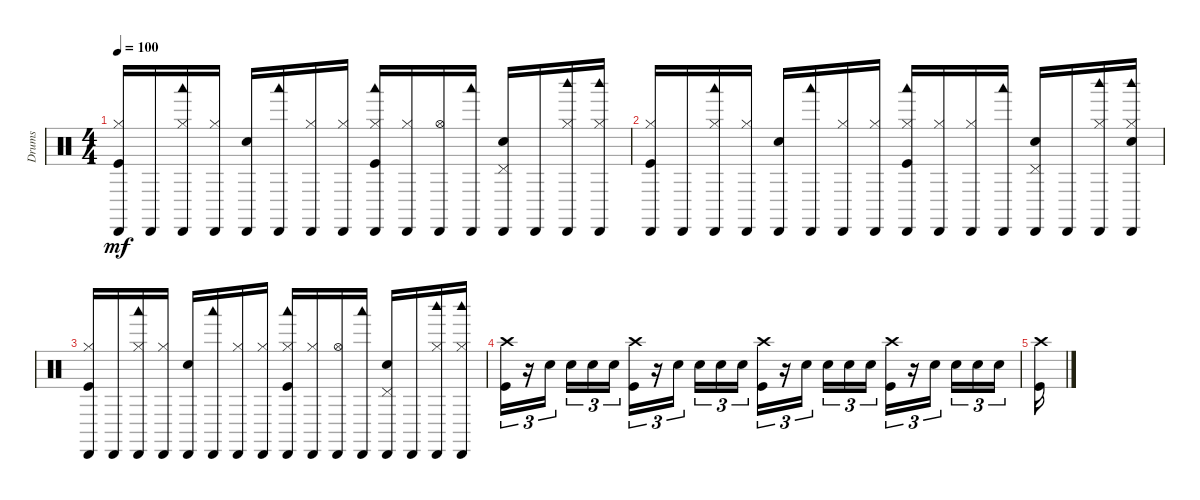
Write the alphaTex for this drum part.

\track ("Drums" "Drums") {instrument percussion}
\staff {score}
\articulation defaults
\ts (4 4)
\tempo 100
\clef neutral
\ks c
("Kick (hit)" "Hi-Hat (closed)" "Cabasa (hit)").16{dy mf} "Cabasa (hit)".16 ("Hi-Hat (closed)" "Woodblock low (hit)" "Cabasa (hit)").16 ("Hi-Hat (closed)" "Cabasa (hit)").16 ("Snare (hit) 2" "Cabasa (hit)").16 ("Woodblock low (hit)" "Cabasa (hit)").16 ("Hi-Hat (closed)" "Cabasa (hit)").16 ("Hi-Hat (closed)" "Cabasa (hit)").16 ("Kick (hit)" "Hi-Hat (closed)" "Woodblock low (hit)" "Cabasa (hit)").16 ("Hi-Hat (closed)" "Cabasa (hit)").16 ("Hi-Hat (open)" "Cabasa (hit)").16 ("Woodblock low (hit)" "Cabasa (hit)").16 ("Snare (hit) 2" "Pedal Hi-Hat (hit)" "Cabasa (hit)").16 "Cabasa (hit)".16 ("Hi-Hat (closed)" "Woodblock high (hit)" "Cabasa (hit)").16 ("Hi-Hat (closed)" "Woodblock high (hit)" "Cabasa (hit)").16 |
("Kick (hit)" "Hi-Hat (closed)" "Cabasa (hit)").16 "Cabasa (hit)".16 ("Hi-Hat (closed)" "Woodblock low (hit)" "Cabasa (hit)").16 ("Hi-Hat (closed)" "Cabasa (hit)").16 ("Snare (hit) 2" "Cabasa (hit)").16 ("Woodblock low (hit)" "Cabasa (hit)").16 ("Hi-Hat (closed)" "Cabasa (hit)").16 ("Hi-Hat (closed)" "Cabasa (hit)").16 ("Kick (hit)" "Hi-Hat (closed)" "Woodblock low (hit)" "Cabasa (hit)").16 ("Hi-Hat (closed)" "Cabasa (hit)").16 ("Hi-Hat (closed)" "Cabasa (hit)").16 ("Woodblock low (hit)" "Cabasa (hit)").16 ("Snare (hit) 2" "Pedal Hi-Hat (hit)" "Cabasa (hit)").16 "Cabasa (hit)".16 ("Hi-Hat (closed)" "Woodblock high (hit)" "Cabasa (hit)").16 ("Snare (hit) 2" "Hi-Hat (closed)" "Woodblock high (hit)" "Cabasa (hit)").16 |
("Kick (hit)" "Hi-Hat (closed)" "Cabasa (hit)").16 "Cabasa (hit)".16 ("Hi-Hat (closed)" "Woodblock low (hit)" "Cabasa (hit)").16 ("Hi-Hat (closed)" "Cabasa (hit)").16 ("Snare (hit) 2" "Cabasa (hit)").16 ("Woodblock low (hit)" "Cabasa (hit)").16 ("Hi-Hat (closed)" "Cabasa (hit)").16 ("Hi-Hat (closed)" "Cabasa (hit)").16 ("Kick (hit)" "Hi-Hat (closed)" "Woodblock low (hit)" "Cabasa (hit)").16 ("Hi-Hat (closed)" "Cabasa (hit)").16 ("Hi-Hat (open)" "Cabasa (hit)").16 ("Woodblock low (hit)" "Cabasa (hit)").16 ("Snare (hit) 2" "Pedal Hi-Hat (hit)" "Cabasa (hit)").16 "Cabasa (hit)".16 ("Hi-Hat (closed)" "Woodblock high (hit)" "Cabasa (hit)").16 ("Hi-Hat (closed)" "Woodblock high (hit)" "Cabasa (hit)").16 |
("Kick (hit)" "Crash high (hit)").16{tu (3 2)} r.16{tu (3 2)} "Snare (hit) 2".16{tu (3 2) beam splitsecondary} "Snare (hit) 2".16{tu (3 2)} "Snare (hit) 2".16{tu (3 2)} "Snare (hit) 2".16{tu (3 2)} ("Kick (hit)" "Crash high (hit)").16{tu (3 2)} r.16{tu (3 2)} "Snare (hit) 2".16{tu (3 2) beam splitsecondary} "Snare (hit) 2".16{tu (3 2)} "Snare (hit) 2".16{tu (3 2)} "Snare (hit) 2".16{tu (3 2)} ("Kick (hit)" "Crash high (hit)").16{tu (3 2)} r.16{tu (3 2)} "Snare (hit) 2".16{tu (3 2) beam splitsecondary} "Snare (hit) 2".16{tu (3 2)} "Snare (hit) 2".16{tu (3 2)} "Snare (hit) 2".16{tu (3 2)} ("Kick (hit)" "Crash high (hit)").16{tu (3 2)} r.16{tu (3 2)} "Snare (hit) 2".16{tu (3 2) beam splitsecondary} "Snare (hit) 2".16{tu (3 2)} "Snare (hit) 2".16{tu (3 2)} "Snare (hit) 2".16{tu (3 2)} |
("Kick (hit)" "Crash high (hit)").16
